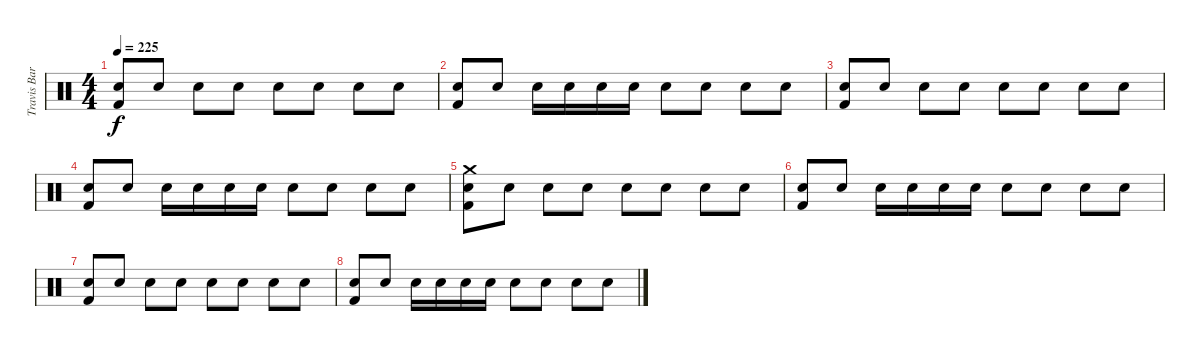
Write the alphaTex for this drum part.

\track ("Travis Barker (Drums)" "Travis Bar") {instrument percussion}
\staff {score}
\articulation defaults
\ts (4 4)
\tempo 225
\clef neutral
\ks c
("Snare (hit) 2" "Kick (hit) 2").8{dy f} "Snare (hit) 2".8 "Snare (hit) 2".8 "Electric Snare (hit)".8 "Snare (hit) 2".8 "Snare (hit) 2".8 "Electric Snare (hit)".8 "Snare (hit) 2".8 |
("Snare (hit) 2" "Kick (hit) 2").8 "Snare (hit) 2".8 "Snare (hit) 2".16 "Snare (hit) 2".16 "Snare (hit) 2".16 "Snare (hit) 2".16 "Electric Snare (hit)".8 "Electric Snare (hit)".8 "Snare (hit) 2".8 "Snare (hit) 2".8 |
("Snare (hit) 2" "Kick (hit) 2").8 "Snare (hit) 2".8 "Snare (hit) 2".8 "Electric Snare (hit)".8 "Snare (hit) 2".8 "Snare (hit) 2".8 "Electric Snare (hit)".8 "Snare (hit) 2".8 |
("Snare (hit) 2" "Kick (hit) 2").8 "Snare (hit) 2".8 "Snare (hit) 2".16 "Snare (hit) 2".16 "Snare (hit) 2".16 "Snare (hit) 2".16 "Electric Snare (hit)".8 "Electric Snare (hit)".8 "Snare (hit) 2".8 "Snare (hit) 2".8 |
("Snare (hit) 2" "Kick (hit) 2" "Crash medium (hit)").8 "Snare (hit) 2".8 "Snare (hit) 2".8 "Electric Snare (hit)".8 "Snare (hit) 2".8 "Snare (hit) 2".8 "Electric Snare (hit)".8 "Snare (hit) 2".8 |
("Snare (hit) 2" "Kick (hit) 2").8 "Snare (hit) 2".8 "Snare (hit) 2".16 "Snare (hit) 2".16 "Snare (hit) 2".16 "Snare (hit) 2".16 "Electric Snare (hit)".8 "Electric Snare (hit)".8 "Snare (hit) 2".8 "Snare (hit) 2".8 |
("Snare (hit) 2" "Kick (hit) 2").8 "Snare (hit) 2".8 "Snare (hit) 2".8 "Electric Snare (hit)".8 "Snare (hit) 2".8 "Snare (hit) 2".8 "Electric Snare (hit)".8 "Snare (hit) 2".8 |
("Snare (hit) 2" "Kick (hit) 2").8 "Snare (hit) 2".8 "Snare (hit) 2".16 "Snare (hit) 2".16 "Snare (hit) 2".16 "Snare (hit) 2".16 "Electric Snare (hit)".8 "Electric Snare (hit)".8 "Snare (hit) 2".8 "Snare (hit) 2".8
